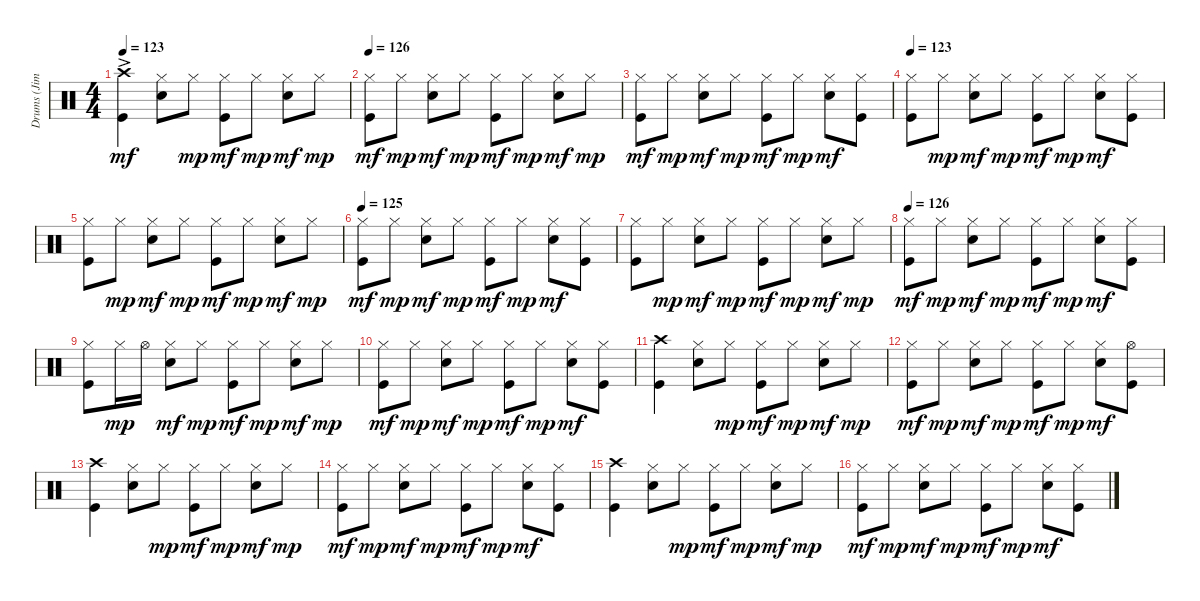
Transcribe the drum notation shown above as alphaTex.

\track ("Drums (Jim Keltner)" "Drums (Jim") {instrument percussion}
\staff {score}
\articulation defaults
\ts (4 4)
\tempo 123
\clef neutral
\ks c
("Crash high (hit)"{ac} "Kick (hit)").4{dy mf} ("Hi-Hat (closed)" "Snare (hit) 2").8 "Hi-Hat (closed)".8{dy mp} ("Hi-Hat (closed)" "Kick (hit)").8{dy mf} "Hi-Hat (closed)".8{dy mp} ("Hi-Hat (closed)" "Snare (hit) 2").8{dy mf} "Hi-Hat (closed)".8{dy mp} |
\tempo 126
("Hi-Hat (closed)" "Kick (hit)").8{dy mf} "Hi-Hat (closed)".8{dy mp} ("Hi-Hat (closed)" "Snare (hit) 2").8{dy mf} "Hi-Hat (closed)".8{dy mp} ("Hi-Hat (closed)" "Kick (hit)").8{dy mf} "Hi-Hat (closed)".8{dy mp} ("Hi-Hat (closed)" "Snare (hit) 2").8{dy mf} "Hi-Hat (closed)".8{dy mp} |
("Hi-Hat (closed)" "Kick (hit)").8{dy mf} "Hi-Hat (closed)".8{dy mp} ("Hi-Hat (closed)" "Snare (hit) 2").8{dy mf} "Hi-Hat (closed)".8{dy mp} ("Hi-Hat (closed)" "Kick (hit)").8{dy mf} "Hi-Hat (closed)".8{dy mp} ("Hi-Hat (closed)" "Snare (hit) 2").8{dy mf} ("Hi-Hat (closed)" "Kick (hit)").8 |
\tempo 123
("Hi-Hat (closed)" "Kick (hit)").8 "Hi-Hat (closed)".8{dy mp} ("Hi-Hat (closed)" "Snare (hit) 2").8{dy mf} "Hi-Hat (closed)".8{dy mp} ("Hi-Hat (closed)" "Kick (hit)").8{dy mf} "Hi-Hat (closed)".8{dy mp} ("Hi-Hat (closed)" "Snare (hit) 2").8{dy mf} ("Hi-Hat (closed)" "Kick (hit)").8 |
("Hi-Hat (closed)" "Kick (hit)").8 "Hi-Hat (closed)".8{dy mp} ("Hi-Hat (closed)" "Snare (hit) 2").8{dy mf} "Hi-Hat (closed)".8{dy mp} ("Hi-Hat (closed)" "Kick (hit)").8{dy mf} "Hi-Hat (closed)".8{dy mp} ("Hi-Hat (closed)" "Snare (hit) 2").8{dy mf} "Hi-Hat (closed)".8{dy mp} |
\tempo 125
("Hi-Hat (closed)" "Kick (hit)").8{dy mf} "Hi-Hat (closed)".8{dy mp} ("Hi-Hat (closed)" "Snare (hit) 2").8{dy mf} "Hi-Hat (closed)".8{dy mp} ("Hi-Hat (closed)" "Kick (hit)").8{dy mf} "Hi-Hat (closed)".8{dy mp} ("Hi-Hat (closed)" "Snare (hit) 2").8{dy mf} ("Hi-Hat (closed)" "Kick (hit)").8 |
("Hi-Hat (closed)" "Kick (hit)").8 "Hi-Hat (closed)".8{dy mp} ("Hi-Hat (closed)" "Snare (hit) 2").8{dy mf} "Hi-Hat (closed)".8{dy mp} ("Hi-Hat (closed)" "Kick (hit)").8{dy mf} "Hi-Hat (closed)".8{dy mp} ("Hi-Hat (closed)" "Snare (hit) 2").8{dy mf} "Hi-Hat (closed)".8{dy mp} |
\tempo 126
("Hi-Hat (closed)" "Kick (hit)").8{dy mf} "Hi-Hat (closed)".8{dy mp} ("Hi-Hat (closed)" "Snare (hit) 2").8{dy mf} "Hi-Hat (closed)".8{dy mp} ("Hi-Hat (closed)" "Kick (hit)").8{dy mf} "Hi-Hat (closed)".8{dy mp} ("Hi-Hat (closed)" "Snare (hit) 2").8{dy mf} ("Hi-Hat (closed)" "Kick (hit)").8 |
("Hi-Hat (closed)" "Kick (hit)").8 "Hi-Hat (closed)".16{dy mp} "Hi-Hat (open)".16 ("Hi-Hat (closed)" "Snare (hit) 2").8{dy mf} "Hi-Hat (closed)".8{dy mp} ("Hi-Hat (closed)" "Kick (hit)").8{dy mf} "Hi-Hat (closed)".8{dy mp} ("Hi-Hat (closed)" "Snare (hit) 2").8{dy mf} "Hi-Hat (closed)".8{dy mp} |
("Hi-Hat (closed)" "Kick (hit)").8{dy mf} "Hi-Hat (closed)".8{dy mp} ("Hi-Hat (closed)" "Snare (hit) 2").8{dy mf} "Hi-Hat (closed)".8{dy mp} ("Hi-Hat (closed)" "Kick (hit)").8{dy mf} "Hi-Hat (closed)".8{dy mp} ("Hi-Hat (closed)" "Snare (hit) 2").8{dy mf} ("Hi-Hat (closed)" "Kick (hit)").8 |
("Crash high (hit)" "Kick (hit)").4 ("Hi-Hat (closed)" "Snare (hit) 2").8 "Hi-Hat (closed)".8{dy mp} ("Hi-Hat (closed)" "Kick (hit)").8{dy mf} "Hi-Hat (closed)".8{dy mp} ("Hi-Hat (closed)" "Snare (hit) 2").8{dy mf} "Hi-Hat (closed)".8{dy mp} |
("Hi-Hat (closed)" "Kick (hit)").8{dy mf} "Hi-Hat (closed)".8{dy mp} ("Hi-Hat (closed)" "Snare (hit) 2").8{dy mf} "Hi-Hat (closed)".8{dy mp} ("Hi-Hat (closed)" "Kick (hit)").8{dy mf} "Hi-Hat (closed)".8{dy mp} ("Hi-Hat (closed)" "Snare (hit) 2").8{dy mf} ("Hi-Hat (open)" "Kick (hit)").8 |
("Crash high (hit)" "Kick (hit)").4 ("Hi-Hat (closed)" "Snare (hit) 2").8 "Hi-Hat (closed)".8{dy mp} ("Hi-Hat (closed)" "Kick (hit)").8{dy mf} "Hi-Hat (closed)".8{dy mp} ("Hi-Hat (closed)" "Snare (hit) 2").8{dy mf} "Hi-Hat (closed)".8{dy mp} |
("Hi-Hat (closed)" "Kick (hit)").8{dy mf} "Hi-Hat (closed)".8{dy mp} ("Hi-Hat (closed)" "Snare (hit) 2").8{dy mf} "Hi-Hat (closed)".8{dy mp} ("Hi-Hat (closed)" "Kick (hit)").8{dy mf} "Hi-Hat (closed)".8{dy mp} ("Hi-Hat (closed)" "Snare (hit) 2").8{dy mf} ("Hi-Hat (closed)" "Kick (hit)").8 |
("Crash high (hit)" "Kick (hit)").4 ("Hi-Hat (closed)" "Snare (hit) 2").8 "Hi-Hat (closed)".8{dy mp} ("Hi-Hat (closed)" "Kick (hit)").8{dy mf} "Hi-Hat (closed)".8{dy mp} ("Hi-Hat (closed)" "Snare (hit) 2").8{dy mf} "Hi-Hat (closed)".8{dy mp} |
("Hi-Hat (closed)" "Kick (hit)").8{dy mf} "Hi-Hat (closed)".8{dy mp} ("Hi-Hat (closed)" "Snare (hit) 2").8{dy mf} "Hi-Hat (closed)".8{dy mp} ("Hi-Hat (closed)" "Kick (hit)").8{dy mf} "Hi-Hat (closed)".8{dy mp} ("Hi-Hat (closed)" "Snare (hit) 2").8{dy mf} ("Hi-Hat (closed)" "Kick (hit)").8
